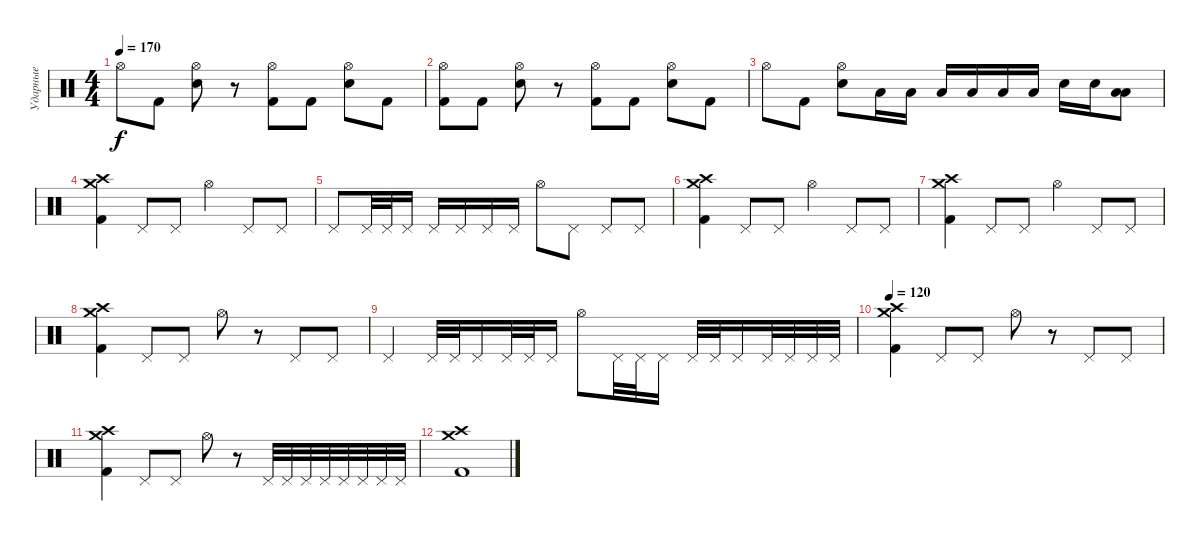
\track ("Ударные" "Ударные") {instrument percussion}
\staff {score}
\articulation defaults
\ts (4 4)
\tempo 170
\clef neutral
\ks c "Hi-Hat (open)".8{dy f} "Kick (hit) 2".8
("Hi-Hat (open)" "Electric Snare (hit)").8 r.8 ("Hi-Hat (open)" "Kick (hit) 2").8 "Kick (hit) 2".8 ("Hi-Hat (open)" "Electric Snare (hit)").8 "Kick (hit) 2".8 |
("Hi-Hat (open)" "Kick (hit) 2").8 "Kick (hit) 2".8 ("Hi-Hat (open)" "Electric Snare (hit)").8 r.8 ("Hi-Hat (open)" "Kick (hit) 2").8 "Kick (hit) 2".8 ("Hi-Hat (open)" "Electric Snare (hit)").8 "Kick (hit) 2".8 |
"Hi-Hat (open)".8 "Kick (hit) 2".8 ("Hi-Hat (open)" "Electric Snare (hit)").8 "Low Tom (hit)".16 "Low Tom (hit)".16 "Low Floor Tom (hit)".16 "Low Floor Tom (hit)".16 "Low Tom (hit)".16 "Low Tom (hit)".16 "Electric Snare (hit)".16 "Electric Snare (hit)".16 ("Low Tom (hit)" "Low Floor Tom (hit)").8 |
("Crash medium (hit)" "Crash high (hit)" "Kick (hit) 2").4 "Pedal Hi-Hat (hit)".8 "Pedal Hi-Hat (hit)".8 "Hi-Hat (open)".4 "Pedal Hi-Hat (hit)".8 "Pedal Hi-Hat (hit)".8 |
"Pedal Hi-Hat (hit)".8 "Pedal Hi-Hat (hit)".32 "Pedal Hi-Hat (hit)".32 "Pedal Hi-Hat (hit)".16 "Pedal Hi-Hat (hit)".16 "Pedal Hi-Hat (hit)".16 "Pedal Hi-Hat (hit)".16 "Pedal Hi-Hat (hit)".16 "Hi-Hat (open)".8 "Pedal Hi-Hat (hit)".8 "Pedal Hi-Hat (hit)".8 "Pedal Hi-Hat (hit)".8 |
("Crash medium (hit)" "Crash high (hit)" "Kick (hit) 2").4 "Pedal Hi-Hat (hit)".8 "Pedal Hi-Hat (hit)".8 "Hi-Hat (open)".4 "Pedal Hi-Hat (hit)".8 "Pedal Hi-Hat (hit)".8 |
("Crash medium (hit)" "Crash high (hit)" "Kick (hit) 2").4 "Pedal Hi-Hat (hit)".8 "Pedal Hi-Hat (hit)".8 "Hi-Hat (open)".4 "Pedal Hi-Hat (hit)".8 "Pedal Hi-Hat (hit)".8 |
("Crash medium (hit)" "Crash high (hit)" "Kick (hit) 2").4 "Pedal Hi-Hat (hit)".8 "Pedal Hi-Hat (hit)".8 "Hi-Hat (open)".8 r.8 "Pedal Hi-Hat (hit)".8 "Pedal Hi-Hat (hit)".8 |
"Pedal Hi-Hat (hit)".4 "Pedal Hi-Hat (hit)".32 "Pedal Hi-Hat (hit)".32 "Pedal Hi-Hat (hit)".16 "Pedal Hi-Hat (hit)".32 "Pedal Hi-Hat (hit)".32 "Pedal Hi-Hat (hit)".16 "Hi-Hat (open)".8 "Pedal Hi-Hat (hit)".32 "Pedal Hi-Hat (hit)".32 "Pedal Hi-Hat (hit)".16 "Pedal Hi-Hat (hit)".32 "Pedal Hi-Hat (hit)".32 "Pedal Hi-Hat (hit)".16 "Pedal Hi-Hat (hit)".32 "Pedal Hi-Hat (hit)".32 "Pedal Hi-Hat (hit)".32 "Pedal Hi-Hat (hit)".32 |
\tempo 120
("Crash medium (hit)" "Crash high (hit)" "Kick (hit) 2").4 "Pedal Hi-Hat (hit)".8 "Pedal Hi-Hat (hit)".8 "Hi-Hat (open)".8 r.8 "Pedal Hi-Hat (hit)".8 "Pedal Hi-Hat (hit)".8 |
("Crash medium (hit)" "Crash high (hit)" "Kick (hit) 2").4 "Pedal Hi-Hat (hit)".8 "Pedal Hi-Hat (hit)".8 "Hi-Hat (open)".8 r.8 "Pedal Hi-Hat (hit)".32 "Pedal Hi-Hat (hit)".32 "Pedal Hi-Hat (hit)".32 "Pedal Hi-Hat (hit)".32 "Pedal Hi-Hat (hit)".32 "Pedal Hi-Hat (hit)".32 "Pedal Hi-Hat (hit)".32 "Pedal Hi-Hat (hit)".32 |
("Crash medium (hit)" "Crash high (hit)" "Kick (hit) 2").1
